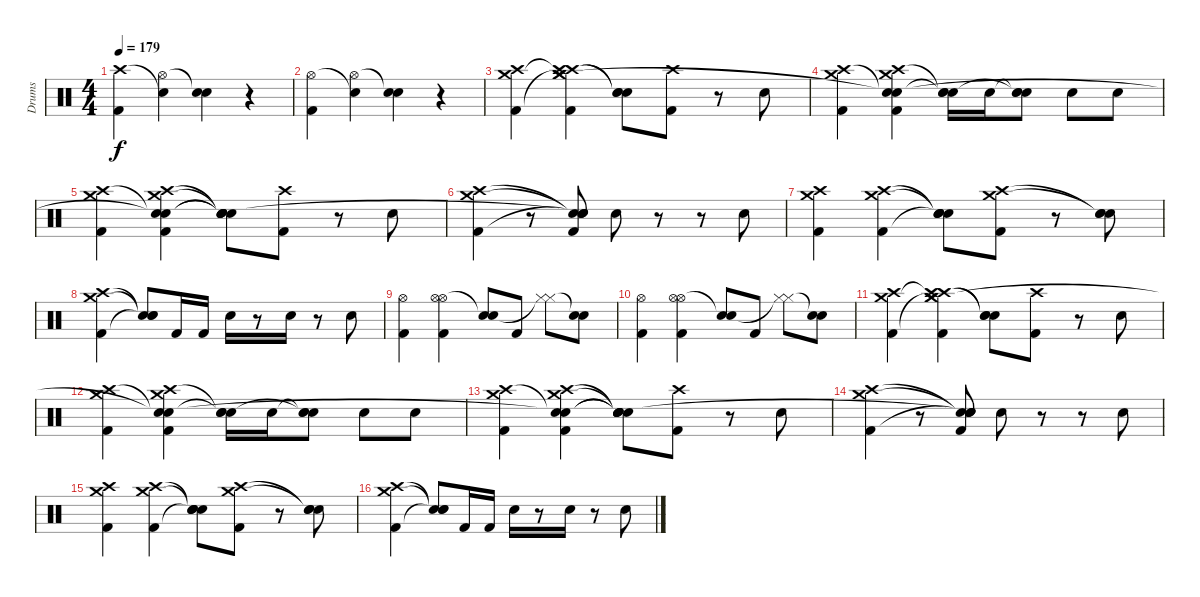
\track ("Drums" "Drums") {instrument percussion}
\staff {score}
\articulation defaults
\ts (4 4)
\tempo 179
\clef neutral
\ks c
("Crash high (hit)" "Kick (hit) 2").4{dy f} ("Snare (hit)"{t} "Hi-Hat (open)").4 ("Electric Snare (hit)" "Snare (hit)"{t}).4 r.4 |
("Hi-Hat (open)" "Kick (hit) 2").4 ("Snare (hit)"{t} "Hi-Hat (open)").4 ("Electric Snare (hit)" "Snare (hit)"{t}).4 r.4 |
("Crash high (hit)" "Crash medium (hit)" "Kick (hit) 2").4 ("Crash high (hit)" "Crash high (hit)"{t} "Crash medium (hit)"{t} "Crash medium (hit)" "Kick (hit) 2").4 ("Snare (hit)"{t} "Snare (hit)"{t} "Electric Snare (hit)").8 ("Crash high (hit)" "Kick (hit) 2").8 r.8 "Electric Snare (hit)".8 |
("Crash high (hit)" "Crash medium (hit)" "Kick (hit) 2").4 ("Snare (hit)"{t} "Crash high (hit)" "Crash medium (hit)" "Snare (hit)"{t} "Kick (hit) 2").4 ("Snare (hit)"{t} "Snare (hit)"{t} "Electric Snare (hit)").16 "Electric Snare (hit)".16 ("Snare (hit)"{t} "Snare (hit)"{t} "Electric Snare (hit)").8 "Electric Snare (hit)".8 "Electric Snare (hit)".8 |
("Crash high (hit)" "Crash medium (hit)" "Kick (hit) 2").4 ("Snare (hit)"{t} "Crash high (hit)" "Crash medium (hit)" "Snare (hit)"{t} "Kick (hit) 2").4 ("Snare (hit)"{t} "Snare (hit)"{t} "Snare (hit)"{t} "Snare (hit)"{t} "Electric Snare (hit)").8 ("Crash high (hit)" "Kick (hit) 2").8 r.8 "Electric Snare (hit)".8 |
("Crash medium (hit)" "Crash high (hit)" "Kick (hit) 2").4 r.8 ("Snare (hit)"{t} "Snare (hit)"{t} "Snare (hit)"{t} "Snare (hit)"{t} "Kick (hit) 2").8 "Electric Snare (hit)".8 r.8 r.8 "Electric Snare (hit)".8 |
("Crash medium (hit)" "Crash high (hit)" "Kick (hit) 2").4 ("Crash medium (hit)" "Crash high (hit)" "Kick (hit) 2").4 ("Snare (hit)"{t} "Snare (hit)"{t} "Snare (hit)"{t} "Electric Snare (hit)").8 ("Crash medium (hit)" "Crash high (hit)" "Kick (hit) 2").8 r.8 ("Snare (hit)"{t} "Snare (hit)"{t} "Electric Snare (hit)").8 |
("Crash high (hit)" "Crash medium (hit)" "Kick (hit) 2").4 ("Snare (hit)"{t} "Snare (hit)"{t} "Snare (hit)"{t}).8 "Kick (hit) 2".16 "Kick (hit) 2".16 "Electric Snare (hit)".16 r.8 "Electric Snare (hit)".16 r.8 "Electric Snare (hit)".8 |
("Hi-Hat (open)" "Kick (hit) 2").4 ("Hi-Hat (open)" "Hi-Hat (open)" "Kick (hit) 2").4 ("Electric Snare (hit)" "Snare (hit)"{t}).8 "Kick (hit) 2".8 ("Hi-Hat (closed)" "Hi-Hat (closed)"{t}).8 ("Snare (hit)"{t} "Electric Snare (hit)").8 |
("Hi-Hat (open)" "Kick (hit) 2").4 ("Hi-Hat (open)" "Hi-Hat (open)" "Kick (hit) 2").4 ("Electric Snare (hit)" "Snare (hit)"{t}).8 "Kick (hit) 2".8 ("Hi-Hat (closed)" "Hi-Hat (closed)"{t}).8 ("Snare (hit)"{t} "Electric Snare (hit)").8 |
("Crash high (hit)" "Crash medium (hit)" "Kick (hit) 2").4 ("Crash high (hit)" "Crash high (hit)"{t} "Crash medium (hit)"{t} "Crash medium (hit)" "Kick (hit) 2").4 ("Snare (hit)"{t} "Snare (hit)"{t} "Electric Snare (hit)").8 ("Crash high (hit)" "Kick (hit) 2").8 r.8 "Electric Snare (hit)".8 |
("Crash high (hit)" "Crash medium (hit)" "Kick (hit) 2").4 ("Snare (hit)"{t} "Crash high (hit)" "Crash medium (hit)" "Snare (hit)"{t} "Kick (hit) 2").4 ("Snare (hit)"{t} "Snare (hit)"{t} "Electric Snare (hit)").16 "Electric Snare (hit)".16 ("Snare (hit)"{t} "Snare (hit)"{t} "Electric Snare (hit)").8 "Electric Snare (hit)".8 "Electric Snare (hit)".8 |
("Crash high (hit)" "Crash medium (hit)" "Kick (hit) 2").4 ("Snare (hit)"{t} "Crash high (hit)" "Crash medium (hit)" "Snare (hit)"{t} "Kick (hit) 2").4 ("Snare (hit)"{t} "Snare (hit)"{t} "Snare (hit)"{t} "Snare (hit)"{t} "Electric Snare (hit)").8 ("Crash high (hit)" "Kick (hit) 2").8 r.8 "Electric Snare (hit)".8 |
("Crash medium (hit)" "Crash high (hit)" "Kick (hit) 2").4 r.8 ("Snare (hit)"{t} "Snare (hit)"{t} "Snare (hit)"{t} "Snare (hit)"{t} "Kick (hit) 2").8 "Electric Snare (hit)".8 r.8 r.8 "Electric Snare (hit)".8 |
("Crash medium (hit)" "Crash high (hit)" "Kick (hit) 2").4 ("Crash medium (hit)" "Crash high (hit)" "Kick (hit) 2").4 ("Snare (hit)"{t} "Snare (hit)"{t} "Snare (hit)"{t} "Electric Snare (hit)").8 ("Crash medium (hit)" "Crash high (hit)" "Kick (hit) 2").8 r.8 ("Snare (hit)"{t} "Snare (hit)"{t} "Electric Snare (hit)").8 |
("Crash high (hit)" "Crash medium (hit)" "Kick (hit) 2").4 ("Snare (hit)"{t} "Snare (hit)"{t} "Snare (hit)"{t}).8 "Kick (hit) 2".16 "Kick (hit) 2".16 "Electric Snare (hit)".16 r.8 "Electric Snare (hit)".16 r.8 "Electric Snare (hit)".8
